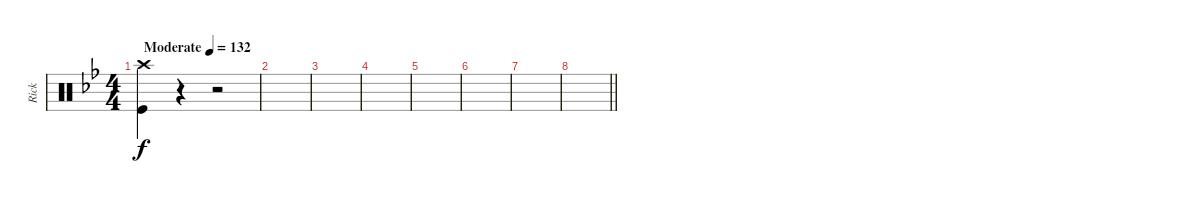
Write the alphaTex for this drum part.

\track ("Rick" "Rick") {instrument percussion}
\staff {score}
\articulation defaults
\ts (4 4)
\tempo (132 "Moderate")
\clef neutral
\ks gminor
("Crash high (hit)" "Kick (hit)").4{dy f} r.4 r.2 |
|
|
|
|
|
|
\barLineRight lightlight
